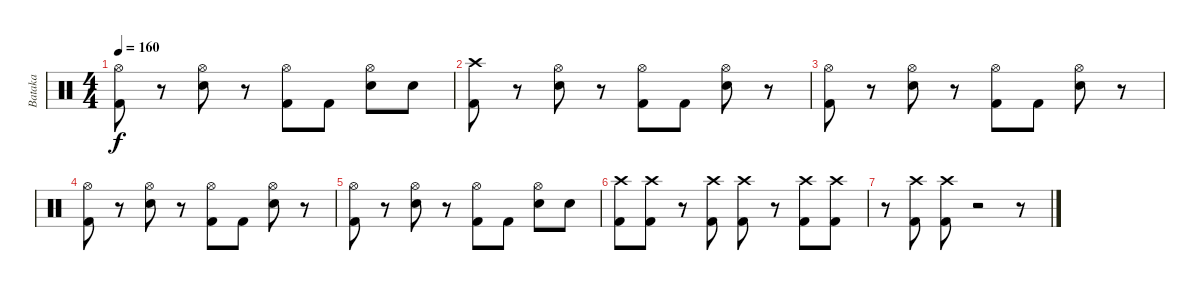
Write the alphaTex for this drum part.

\track ("Bataka" "Bataka") {instrument percussion}
\staff {score}
\articulation defaults
\ts (4 4)
\tempo 160
\clef neutral
\ks c
("Hi-Hat (open)" "Kick (hit) 2").8{dy f} r.8 ("Hi-Hat (open)" "Snare (hit) 2").8 r.8 ("Hi-Hat (open)" "Kick (hit) 2").8 "Kick (hit) 2".8 ("Hi-Hat (open)" "Snare (hit) 2").8 "Snare (hit) 2".8 |
("Crash high (hit)" "Kick (hit) 2").8 r.8 ("Hi-Hat (open)" "Snare (hit) 2").8 r.8 ("Hi-Hat (open)" "Kick (hit) 2").8 "Kick (hit) 2".8 ("Hi-Hat (open)" "Snare (hit) 2").8 r.8 |
("Hi-Hat (open)" "Kick (hit) 2").8 r.8 ("Hi-Hat (open)" "Snare (hit) 2").8 r.8 ("Hi-Hat (open)" "Kick (hit) 2").8 "Kick (hit) 2".8 ("Hi-Hat (open)" "Snare (hit) 2").8 r.8 |
("Hi-Hat (open)" "Kick (hit) 2").8 r.8 ("Hi-Hat (open)" "Snare (hit) 2").8 r.8 ("Hi-Hat (open)" "Kick (hit) 2").8 "Kick (hit) 2".8 ("Hi-Hat (open)" "Snare (hit) 2").8 r.8 |
("Hi-Hat (open)" "Kick (hit) 2").8 r.8 ("Hi-Hat (open)" "Snare (hit) 2").8 r.8 ("Hi-Hat (open)" "Kick (hit) 2").8 "Kick (hit) 2".8 ("Hi-Hat (open)" "Snare (hit) 2").8 "Snare (hit) 2".8 |
("Crash high (hit)" "Kick (hit) 2").8 ("Crash high (hit)" "Kick (hit) 2").8 r.8 ("Crash high (hit)" "Kick (hit) 2").8 ("Crash high (hit)" "Kick (hit) 2").8 r.8 ("Crash high (hit)" "Kick (hit) 2").8 ("Crash high (hit)" "Kick (hit) 2").8 |
r.8 ("Crash high (hit)" "Kick (hit) 2").8 ("Crash high (hit)" "Kick (hit) 2").8 r.2 r.8
